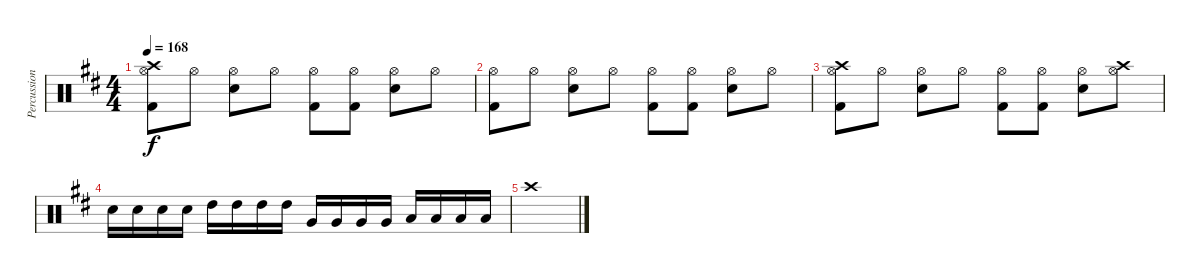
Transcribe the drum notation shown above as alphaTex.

\track ("Percussion" "Percussion") {instrument percussion}
\staff {score}
\articulation defaults
\ts (4 4)
\tempo 168
\clef neutral
\ks d
("Crash high (hit)" "Kick (hit) 2" "Hi-Hat (open)").8{dy f} "Hi-Hat (open)".8 ("Electric Snare (hit)" "Hi-Hat (open)").8 "Hi-Hat (open)".8 ("Kick (hit) 2" "Hi-Hat (open)").8 ("Kick (hit) 2" "Hi-Hat (open)").8 ("Electric Snare (hit)" "Hi-Hat (open)").8 "Hi-Hat (open)".8 |
("Kick (hit) 2" "Hi-Hat (open)").8 "Hi-Hat (open)".8 ("Electric Snare (hit)" "Hi-Hat (open)").8 "Hi-Hat (open)".8 ("Kick (hit) 2" "Hi-Hat (open)").8 ("Kick (hit) 2" "Hi-Hat (open)").8 ("Electric Snare (hit)" "Hi-Hat (open)").8 "Hi-Hat (open)".8 |
("Crash high (hit)" "Kick (hit) 2" "Hi-Hat (open)").8 "Hi-Hat (open)".8 ("Electric Snare (hit)" "Hi-Hat (open)").8 "Hi-Hat (open)".8 ("Kick (hit) 2" "Hi-Hat (open)").8 ("Kick (hit) 2" "Hi-Hat (open)").8 ("Electric Snare (hit)" "Hi-Hat (open)").8 ("Crash high (hit)" "Hi-Hat (open)").8 |
"Electric Snare (hit)".16 "Electric Snare (hit)".16 "Electric Snare (hit)".16 "Electric Snare (hit)".16 "High Tom (hit)".16 "High Tom (hit)".16 "High Tom (hit)".16 "High Tom (hit)".16 "Very Low Tom (hit)".16 "Very Low Tom (hit)".16 "Very Low Tom (hit)".16 "Very Low Tom (hit)".16 "Low Tom (hit)".16 "Low Tom (hit)".16 "Low Tom (hit)".16 "Low Tom (hit)".16 |
"Crash high (hit)".1
